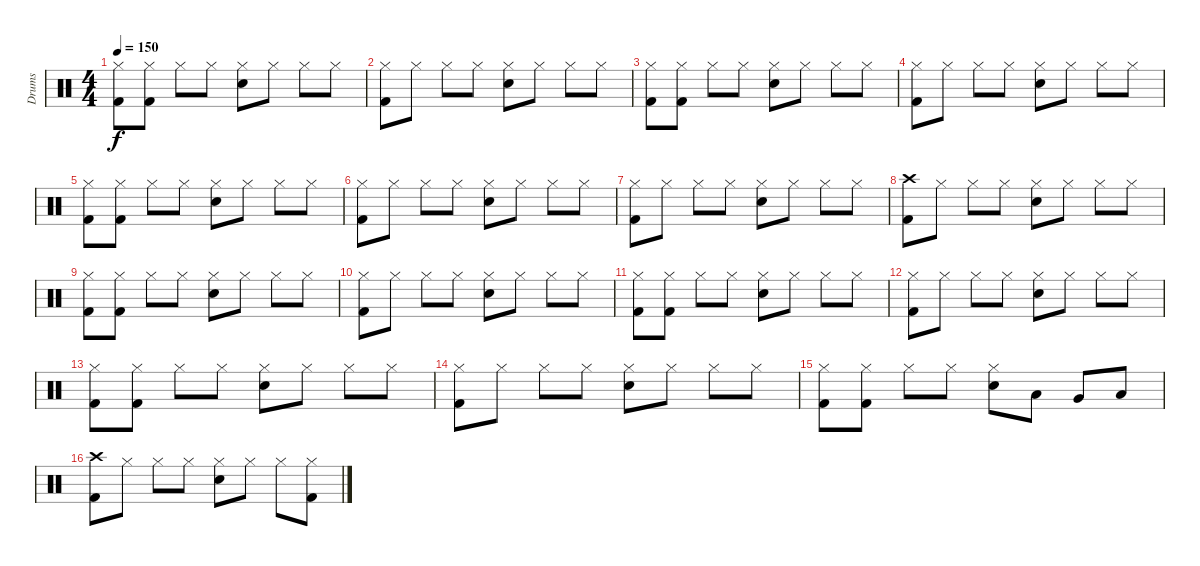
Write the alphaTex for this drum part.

\track ("Drums" "Drums") {instrument percussion}
\staff {score}
\articulation defaults
\ts (4 4)
\tempo 150
\clef neutral
\ks c
("Hi-Hat (closed)" "Kick (hit) 2").8{dy f} ("Hi-Hat (closed)" "Kick (hit) 2").8 "Hi-Hat (closed)".8 "Hi-Hat (closed)".8 ("Hi-Hat (closed)" "Electric Snare (hit)").8 "Hi-Hat (closed)".8 "Hi-Hat (closed)".8 "Hi-Hat (closed)".8 |
("Hi-Hat (closed)" "Kick (hit) 2").8 "Hi-Hat (closed)".8 "Hi-Hat (closed)".8 "Hi-Hat (closed)".8 ("Hi-Hat (closed)" "Electric Snare (hit)").8 "Hi-Hat (closed)".8 "Hi-Hat (closed)".8 "Hi-Hat (closed)".8 |
("Hi-Hat (closed)" "Kick (hit) 2").8 ("Hi-Hat (closed)" "Kick (hit) 2").8 "Hi-Hat (closed)".8 "Hi-Hat (closed)".8 ("Hi-Hat (closed)" "Electric Snare (hit)").8 "Hi-Hat (closed)".8 "Hi-Hat (closed)".8 "Hi-Hat (closed)".8 |
("Hi-Hat (closed)" "Kick (hit) 2").8 "Hi-Hat (closed)".8 "Hi-Hat (closed)".8 "Hi-Hat (closed)".8 ("Hi-Hat (closed)" "Electric Snare (hit)").8 "Hi-Hat (closed)".8 "Hi-Hat (closed)".8 "Hi-Hat (closed)".8 |
("Hi-Hat (closed)" "Kick (hit) 2").8 ("Hi-Hat (closed)" "Kick (hit) 2").8 "Hi-Hat (closed)".8 "Hi-Hat (closed)".8 ("Hi-Hat (closed)" "Electric Snare (hit)").8 "Hi-Hat (closed)".8 "Hi-Hat (closed)".8 "Hi-Hat (closed)".8 |
("Hi-Hat (closed)" "Kick (hit) 2").8 "Hi-Hat (closed)".8 "Hi-Hat (closed)".8 "Hi-Hat (closed)".8 ("Hi-Hat (closed)" "Electric Snare (hit)").8 "Hi-Hat (closed)".8 "Hi-Hat (closed)".8 "Hi-Hat (closed)".8 |
("Hi-Hat (closed)" "Kick (hit) 2").8 "Hi-Hat (closed)".8 "Hi-Hat (closed)".8 "Hi-Hat (closed)".8 ("Hi-Hat (closed)" "Electric Snare (hit)").8 "Hi-Hat (closed)".8 "Hi-Hat (closed)".8 "Hi-Hat (closed)".8 |
("Crash high (hit)" "Kick (hit) 2").8 "Hi-Hat (closed)".8 "Hi-Hat (closed)".8 "Hi-Hat (closed)".8 ("Hi-Hat (closed)" "Electric Snare (hit)").8 "Hi-Hat (closed)".8 "Hi-Hat (closed)".8 "Hi-Hat (closed)".8 |
("Hi-Hat (closed)" "Kick (hit) 2").8 ("Hi-Hat (closed)" "Kick (hit) 2").8 "Hi-Hat (closed)".8 "Hi-Hat (closed)".8 ("Hi-Hat (closed)" "Electric Snare (hit)").8 "Hi-Hat (closed)".8 "Hi-Hat (closed)".8 "Hi-Hat (closed)".8 |
("Hi-Hat (closed)" "Kick (hit) 2").8 "Hi-Hat (closed)".8 "Hi-Hat (closed)".8 "Hi-Hat (closed)".8 ("Hi-Hat (closed)" "Electric Snare (hit)").8 "Hi-Hat (closed)".8 "Hi-Hat (closed)".8 "Hi-Hat (closed)".8 |
("Hi-Hat (closed)" "Kick (hit) 2").8 ("Hi-Hat (closed)" "Kick (hit) 2").8 "Hi-Hat (closed)".8 "Hi-Hat (closed)".8 ("Hi-Hat (closed)" "Electric Snare (hit)").8 "Hi-Hat (closed)".8 "Hi-Hat (closed)".8 "Hi-Hat (closed)".8 |
("Hi-Hat (closed)" "Kick (hit) 2").8 "Hi-Hat (closed)".8 "Hi-Hat (closed)".8 "Hi-Hat (closed)".8 ("Hi-Hat (closed)" "Electric Snare (hit)").8 "Hi-Hat (closed)".8 "Hi-Hat (closed)".8 "Hi-Hat (closed)".8 |
("Hi-Hat (closed)" "Kick (hit) 2").8 ("Hi-Hat (closed)" "Kick (hit) 2").8 "Hi-Hat (closed)".8 "Hi-Hat (closed)".8 ("Hi-Hat (closed)" "Electric Snare (hit)").8 "Hi-Hat (closed)".8 "Hi-Hat (closed)".8 "Hi-Hat (closed)".8 |
("Hi-Hat (closed)" "Kick (hit) 2").8 "Hi-Hat (closed)".8 "Hi-Hat (closed)".8 "Hi-Hat (closed)".8 ("Hi-Hat (closed)" "Electric Snare (hit)").8 "Hi-Hat (closed)".8 "Hi-Hat (closed)".8 "Hi-Hat (closed)".8 |
("Hi-Hat (closed)" "Kick (hit) 2").8 ("Hi-Hat (closed)" "Kick (hit) 2").8 "Hi-Hat (closed)".8 "Hi-Hat (closed)".8 ("Hi-Hat (closed)" "Electric Snare (hit)").8 "Low Tom (hit)".8 "Very Low Tom (hit)".8 "Low Floor Tom (hit)".8 |
("Crash high (hit)" "Kick (hit) 2").8 "Hi-Hat (closed)".8 "Hi-Hat (closed)".8 "Hi-Hat (closed)".8 ("Hi-Hat (closed)" "Electric Snare (hit)").8 "Hi-Hat (closed)".8 "Hi-Hat (closed)".8 ("Hi-Hat (closed)" "Kick (hit) 2").8
